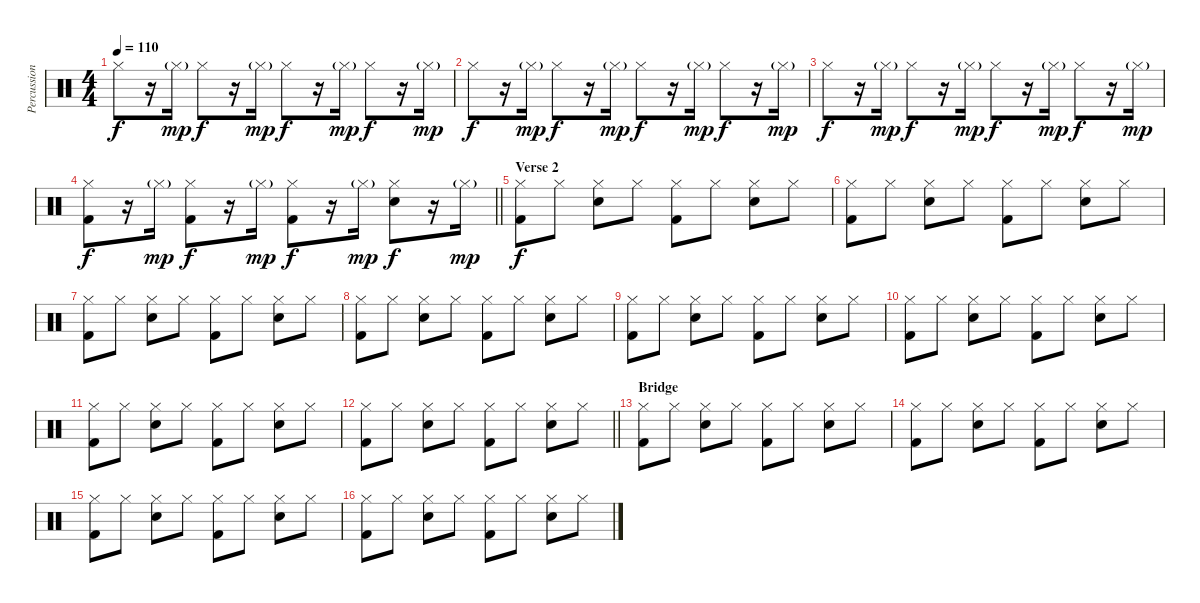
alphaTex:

\track ("Percussion" "Percussion") {instrument percussion}
\staff {score}
\articulation defaults
\ts (4 4)
\tempo 110
\clef neutral
\ks c "Hi-Hat (closed)".8{dy f}
r.16 "Hi-Hat (closed)"{g}.16{dy mp} "Hi-Hat (closed)".8{dy f} r.16 "Hi-Hat (closed)"{g}.16{dy mp} "Hi-Hat (closed)".8{dy f} r.16 "Hi-Hat (closed)"{g}.16{dy mp} "Hi-Hat (closed)".8{dy f} r.16 "Hi-Hat (closed)"{g}.16{dy mp} |
"Hi-Hat (closed)".8{dy f} r.16 "Hi-Hat (closed)"{g}.16{dy mp} "Hi-Hat (closed)".8{dy f} r.16 "Hi-Hat (closed)"{g}.16{dy mp} "Hi-Hat (closed)".8{dy f} r.16 "Hi-Hat (closed)"{g}.16{dy mp} "Hi-Hat (closed)".8{dy f} r.16 "Hi-Hat (closed)"{g}.16{dy mp} |
"Hi-Hat (closed)".8{dy f} r.16 "Hi-Hat (closed)"{g}.16{dy mp} "Hi-Hat (closed)".8{dy f} r.16 "Hi-Hat (closed)"{g}.16{dy mp} "Hi-Hat (closed)".8{dy f} r.16 "Hi-Hat (closed)"{g}.16{dy mp} "Hi-Hat (closed)".8{dy f} r.16 "Hi-Hat (closed)"{g}.16{dy mp} |
\barLineRight lightlight
("Hi-Hat (closed)" "Kick (hit) 2").8{dy f} r.16 "Hi-Hat (closed)"{g}.16{dy mp} ("Hi-Hat (closed)" "Kick (hit) 2").8{dy f} r.16 "Hi-Hat (closed)"{g}.16{dy mp} ("Hi-Hat (closed)" "Kick (hit) 2").8{dy f} r.16 "Hi-Hat (closed)"{g}.16{dy mp} ("Hi-Hat (closed)" "Electric Snare (hit)").8{dy f} r.16 "Hi-Hat (closed)"{g}.16{dy mp} |
\section ("" "Verse 2")
("Hi-Hat (closed)" "Kick (hit) 2").8{dy f} "Hi-Hat (closed)".8 ("Hi-Hat (closed)" "Electric Snare (hit)").8 "Hi-Hat (closed)".8 ("Hi-Hat (closed)" "Kick (hit) 2").8 "Hi-Hat (closed)".8 ("Hi-Hat (closed)" "Electric Snare (hit)").8 "Hi-Hat (closed)".8 |
("Hi-Hat (closed)" "Kick (hit) 2").8 "Hi-Hat (closed)".8 ("Hi-Hat (closed)" "Electric Snare (hit)").8 "Hi-Hat (closed)".8 ("Hi-Hat (closed)" "Kick (hit) 2").8 "Hi-Hat (closed)".8 ("Hi-Hat (closed)" "Electric Snare (hit)").8 "Hi-Hat (closed)".8 |
("Hi-Hat (closed)" "Kick (hit) 2").8 "Hi-Hat (closed)".8 ("Hi-Hat (closed)" "Electric Snare (hit)").8 "Hi-Hat (closed)".8 ("Hi-Hat (closed)" "Kick (hit) 2").8 "Hi-Hat (closed)".8 ("Hi-Hat (closed)" "Electric Snare (hit)").8 "Hi-Hat (closed)".8 |
("Hi-Hat (closed)" "Kick (hit) 2").8 "Hi-Hat (closed)".8 ("Hi-Hat (closed)" "Electric Snare (hit)").8 "Hi-Hat (closed)".8 ("Hi-Hat (closed)" "Kick (hit) 2").8 "Hi-Hat (closed)".8 ("Hi-Hat (closed)" "Electric Snare (hit)").8 "Hi-Hat (closed)".8 |
("Hi-Hat (closed)" "Kick (hit) 2").8 "Hi-Hat (closed)".8 ("Hi-Hat (closed)" "Electric Snare (hit)").8 "Hi-Hat (closed)".8 ("Hi-Hat (closed)" "Kick (hit) 2").8 "Hi-Hat (closed)".8 ("Hi-Hat (closed)" "Electric Snare (hit)").8 "Hi-Hat (closed)".8 |
("Hi-Hat (closed)" "Kick (hit) 2").8 "Hi-Hat (closed)".8 ("Hi-Hat (closed)" "Electric Snare (hit)").8 "Hi-Hat (closed)".8 ("Hi-Hat (closed)" "Kick (hit) 2").8 "Hi-Hat (closed)".8 ("Hi-Hat (closed)" "Electric Snare (hit)").8 "Hi-Hat (closed)".8 |
("Hi-Hat (closed)" "Kick (hit) 2").8 "Hi-Hat (closed)".8 ("Hi-Hat (closed)" "Electric Snare (hit)").8 "Hi-Hat (closed)".8 ("Hi-Hat (closed)" "Kick (hit) 2").8 "Hi-Hat (closed)".8 ("Hi-Hat (closed)" "Electric Snare (hit)").8 "Hi-Hat (closed)".8 |
\barLineRight lightlight
("Hi-Hat (closed)" "Kick (hit) 2").8 "Hi-Hat (closed)".8 ("Hi-Hat (closed)" "Electric Snare (hit)").8 "Hi-Hat (closed)".8 ("Hi-Hat (closed)" "Kick (hit) 2").8 "Hi-Hat (closed)".8 ("Hi-Hat (closed)" "Electric Snare (hit)").8 "Hi-Hat (closed)".8 |
\section ("" "Bridge")
("Hi-Hat (closed)" "Kick (hit) 2").8 "Hi-Hat (closed)".8 ("Hi-Hat (closed)" "Electric Snare (hit)").8 "Hi-Hat (closed)".8 ("Hi-Hat (closed)" "Kick (hit) 2").8 "Hi-Hat (closed)".8 ("Hi-Hat (closed)" "Electric Snare (hit)").8 "Hi-Hat (closed)".8 |
("Hi-Hat (closed)" "Kick (hit) 2").8 "Hi-Hat (closed)".8 ("Hi-Hat (closed)" "Electric Snare (hit)").8 "Hi-Hat (closed)".8 ("Hi-Hat (closed)" "Kick (hit) 2").8 "Hi-Hat (closed)".8 ("Hi-Hat (closed)" "Electric Snare (hit)").8 "Hi-Hat (closed)".8 |
("Hi-Hat (closed)" "Kick (hit) 2").8 "Hi-Hat (closed)".8 ("Hi-Hat (closed)" "Electric Snare (hit)").8 "Hi-Hat (closed)".8 ("Hi-Hat (closed)" "Kick (hit) 2").8 "Hi-Hat (closed)".8 ("Hi-Hat (closed)" "Electric Snare (hit)").8 "Hi-Hat (closed)".8 |
("Hi-Hat (closed)" "Kick (hit) 2").8 "Hi-Hat (closed)".8 ("Hi-Hat (closed)" "Electric Snare (hit)").8 "Hi-Hat (closed)".8 ("Hi-Hat (closed)" "Kick (hit) 2").8 "Hi-Hat (closed)".8 ("Hi-Hat (closed)" "Electric Snare (hit)").8 "Hi-Hat (closed)".8
